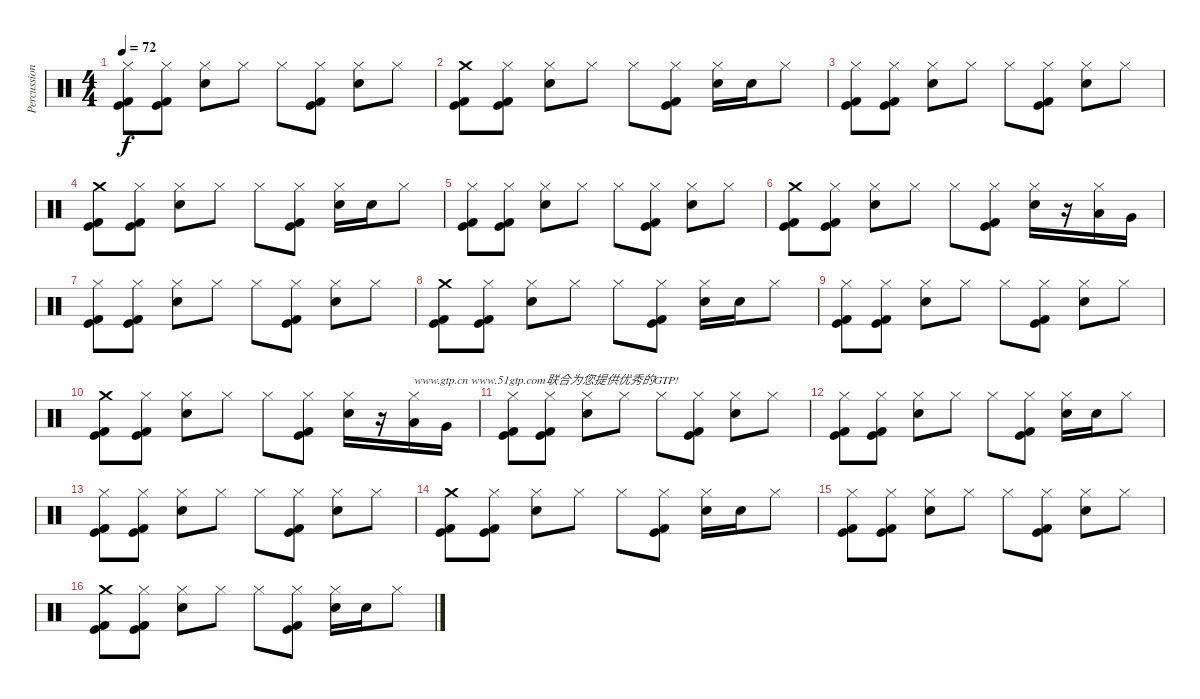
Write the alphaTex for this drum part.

\track ("Percussion" "Percussion") {instrument percussion}
\staff {score}
\articulation defaults
\ts (4 4)
\tempo 72
\clef neutral
\ks c
("Hi-Hat (closed)" "Kick (hit)" "Kick (hit) 2").8{dy f} ("Hi-Hat (closed)" "Kick (hit)" "Kick (hit) 2").8 ("Hi-Hat (closed)" "Snare (hit) 2").8 "Hi-Hat (closed)".8 "Hi-Hat (closed)".8 ("Hi-Hat (closed)" "Kick (hit)" "Kick (hit) 2").8 ("Hi-Hat (closed)" "Snare (hit) 2").8 "Hi-Hat (closed)".8 |
("Crash medium (hit)" "Kick (hit)" "Kick (hit) 2").8 ("Hi-Hat (closed)" "Kick (hit)" "Kick (hit) 2").8 ("Hi-Hat (closed)" "Snare (hit) 2").8 "Hi-Hat (closed)".8 "Hi-Hat (closed)".8 ("Hi-Hat (closed)" "Kick (hit)" "Kick (hit) 2").8 ("Hi-Hat (closed)" "Snare (hit) 2").16 "Snare (hit) 2".16 "Hi-Hat (closed)".8 |
("Hi-Hat (closed)" "Kick (hit)" "Kick (hit) 2").8 ("Hi-Hat (closed)" "Kick (hit)" "Kick (hit) 2").8 ("Hi-Hat (closed)" "Snare (hit) 2").8 "Hi-Hat (closed)".8 "Hi-Hat (closed)".8 ("Hi-Hat (closed)" "Kick (hit)" "Kick (hit) 2").8 ("Hi-Hat (closed)" "Snare (hit) 2").8 "Hi-Hat (closed)".8 |
("Crash medium (hit)" "Kick (hit)" "Kick (hit) 2").8 ("Hi-Hat (closed)" "Kick (hit)" "Kick (hit) 2").8 ("Hi-Hat (closed)" "Snare (hit) 2").8 "Hi-Hat (closed)".8 "Hi-Hat (closed)".8 ("Hi-Hat (closed)" "Kick (hit)" "Kick (hit) 2").8 ("Hi-Hat (closed)" "Snare (hit) 2").16 "Snare (hit) 2".16 "Hi-Hat (closed)".8 |
("Hi-Hat (closed)" "Kick (hit)" "Kick (hit) 2").8 ("Hi-Hat (closed)" "Kick (hit)" "Kick (hit) 2").8 ("Hi-Hat (closed)" "Snare (hit) 2").8 "Hi-Hat (closed)".8 "Hi-Hat (closed)".8 ("Hi-Hat (closed)" "Kick (hit)" "Kick (hit) 2").8 ("Hi-Hat (closed)" "Snare (hit) 2").8 "Hi-Hat (closed)".8 |
("Crash medium (hit)" "Kick (hit)" "Kick (hit) 2").8 ("Hi-Hat (closed)" "Kick (hit)" "Kick (hit) 2").8 ("Hi-Hat (closed)" "Snare (hit) 2").8 "Hi-Hat (closed)".8 "Hi-Hat (closed)".8 ("Hi-Hat (closed)" "Kick (hit)" "Kick (hit) 2").8 ("Hi-Hat (closed)" "Snare (hit) 2").16 r.16 ("Hi-Hat (closed)" "Low Tom (hit)").16 "Very Low Tom (hit)".16 |
("Hi-Hat (closed)" "Kick (hit)" "Kick (hit) 2").8 ("Hi-Hat (closed)" "Kick (hit)" "Kick (hit) 2").8 ("Hi-Hat (closed)" "Snare (hit) 2").8 "Hi-Hat (closed)".8 "Hi-Hat (closed)".8 ("Hi-Hat (closed)" "Kick (hit)" "Kick (hit) 2").8 ("Hi-Hat (closed)" "Snare (hit) 2").8 "Hi-Hat (closed)".8 |
("Crash medium (hit)" "Kick (hit)" "Kick (hit) 2").8 ("Hi-Hat (closed)" "Kick (hit)" "Kick (hit) 2").8 ("Hi-Hat (closed)" "Snare (hit) 2").8 "Hi-Hat (closed)".8 "Hi-Hat (closed)".8 ("Hi-Hat (closed)" "Kick (hit)" "Kick (hit) 2").8 ("Hi-Hat (closed)" "Snare (hit) 2").16 "Snare (hit) 2".16 "Hi-Hat (closed)".8 |
("Hi-Hat (closed)" "Kick (hit)" "Kick (hit) 2").8 ("Hi-Hat (closed)" "Kick (hit)" "Kick (hit) 2").8 ("Hi-Hat (closed)" "Snare (hit) 2").8 "Hi-Hat (closed)".8 "Hi-Hat (closed)".8 ("Hi-Hat (closed)" "Kick (hit)" "Kick (hit) 2").8 ("Hi-Hat (closed)" "Snare (hit) 2").8 "Hi-Hat (closed)".8 |
("Crash medium (hit)" "Kick (hit)" "Kick (hit) 2").8 ("Hi-Hat (closed)" "Kick (hit)" "Kick (hit) 2").8 ("Hi-Hat (closed)" "Snare (hit) 2").8 "Hi-Hat (closed)".8 "Hi-Hat (closed)".8 ("Hi-Hat (closed)" "Kick (hit)" "Kick (hit) 2").8 ("Hi-Hat (closed)" "Snare (hit) 2").16 r.16 ("Hi-Hat (closed)" "Low Tom (hit)").16{txt "www.gtp.cn www.51gtp.com联合为您提供优秀的GTP!"} "Very Low Tom (hit)".16 |
("Hi-Hat (closed)" "Kick (hit)" "Kick (hit) 2").8 ("Hi-Hat (closed)" "Kick (hit)" "Kick (hit) 2").8 ("Hi-Hat (closed)" "Snare (hit) 2").8 "Hi-Hat (closed)".8 "Hi-Hat (closed)".8 ("Hi-Hat (closed)" "Kick (hit)" "Kick (hit) 2").8 ("Hi-Hat (closed)" "Snare (hit) 2").8 "Hi-Hat (closed)".8 |
("Hi-Hat (closed)" "Kick (hit)" "Kick (hit) 2").8 ("Hi-Hat (closed)" "Kick (hit)" "Kick (hit) 2").8 ("Hi-Hat (closed)" "Snare (hit) 2").8 "Hi-Hat (closed)".8 "Hi-Hat (closed)".8 ("Hi-Hat (closed)" "Kick (hit)" "Kick (hit) 2").8 ("Hi-Hat (closed)" "Snare (hit) 2").16 "Snare (hit) 2".16 "Hi-Hat (closed)".8 |
("Hi-Hat (closed)" "Kick (hit)" "Kick (hit) 2").8 ("Hi-Hat (closed)" "Kick (hit)" "Kick (hit) 2").8 ("Hi-Hat (closed)" "Snare (hit) 2").8 "Hi-Hat (closed)".8 "Hi-Hat (closed)".8 ("Hi-Hat (closed)" "Kick (hit)" "Kick (hit) 2").8 ("Hi-Hat (closed)" "Snare (hit) 2").8 "Hi-Hat (closed)".8 |
("Crash medium (hit)" "Kick (hit)" "Kick (hit) 2").8 ("Hi-Hat (closed)" "Kick (hit)" "Kick (hit) 2").8 ("Hi-Hat (closed)" "Snare (hit) 2").8 "Hi-Hat (closed)".8 "Hi-Hat (closed)".8 ("Hi-Hat (closed)" "Kick (hit)" "Kick (hit) 2").8 ("Hi-Hat (closed)" "Snare (hit) 2").16 "Snare (hit) 2".16 "Hi-Hat (closed)".8 |
("Hi-Hat (closed)" "Kick (hit)" "Kick (hit) 2").8 ("Hi-Hat (closed)" "Kick (hit)" "Kick (hit) 2").8 ("Hi-Hat (closed)" "Snare (hit) 2").8 "Hi-Hat (closed)".8 "Hi-Hat (closed)".8 ("Hi-Hat (closed)" "Kick (hit)" "Kick (hit) 2").8 ("Hi-Hat (closed)" "Snare (hit) 2").8 "Hi-Hat (closed)".8 |
("Crash medium (hit)" "Kick (hit)" "Kick (hit) 2").8 ("Hi-Hat (closed)" "Kick (hit)" "Kick (hit) 2").8 ("Hi-Hat (closed)" "Snare (hit) 2").8 "Hi-Hat (closed)".8 "Hi-Hat (closed)".8 ("Hi-Hat (closed)" "Kick (hit)" "Kick (hit) 2").8 ("Hi-Hat (closed)" "Snare (hit) 2").16 "Snare (hit) 2".16 "Hi-Hat (closed)".8
